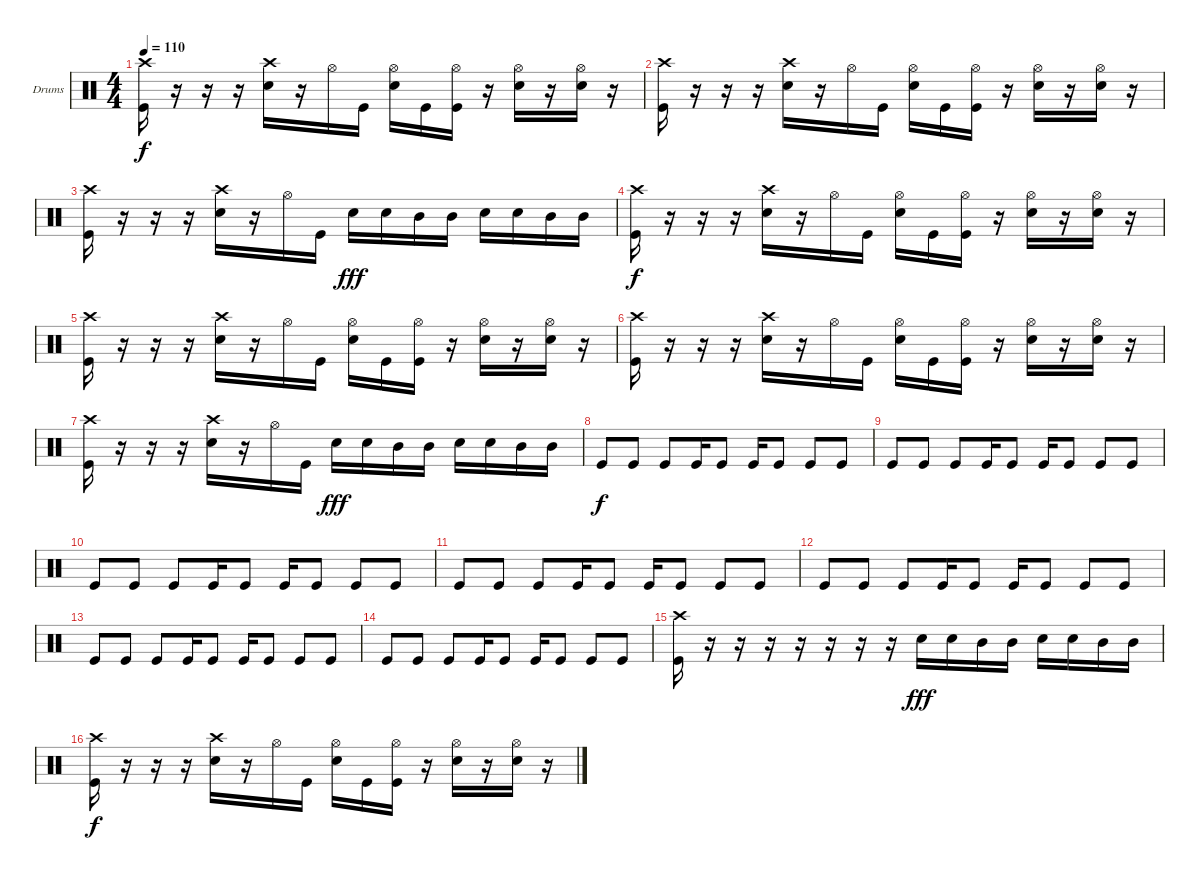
\defaultSystemsLayout 4
\bracketExtendMode groupsimilarinstruments
\firstSystemTrackNameOrientation horizontal
\otherSystemsTrackNameOrientation horizontal
\track ("Drumkit" "Drums") {instrument percussion}
\staff {score}
\articulation defaults
\ts (4 4)
\tempo 110
\clef neutral
\ks c
("Crash high (hit)" "Kick (hit)").16{dy f} r.16 r.16 r.16 ("Crash high (hit)" "Snare (hit) 2").16 r.16 "Hi-Hat (open)".16 "Kick (hit)".16 ("Hi-Hat (open)" "Snare (hit) 2").16 "Kick (hit)".16 ("Hi-Hat (open)" "Kick (hit)").16 r.16 ("Hi-Hat (open)" "Snare (hit) 2").16 r.16 ("Hi-Hat (open)" "Snare (hit) 2").16 r.16 |
("Crash high (hit)" "Kick (hit)").16 r.16 r.16 r.16 ("Crash high (hit)" "Snare (hit) 2").16 r.16 "Hi-Hat (open)".16 "Kick (hit)".16 ("Hi-Hat (open)" "Snare (hit) 2").16 "Kick (hit)".16 ("Hi-Hat (open)" "Kick (hit)").16 r.16 ("Hi-Hat (open)" "Snare (hit) 2").16 r.16 ("Hi-Hat (open)" "Snare (hit) 2").16 r.16 |
("Crash high (hit)" "Kick (hit)").16 r.16 r.16 r.16 ("Crash high (hit)" "Snare (hit) 2").16 r.16 "Hi-Hat (open)".16 "Kick (hit)".16 "Snare (hit) 2".16{dy fff} "Snare (hit) 2".16 "Mid Tom (hit)".16 "Mid Tom (hit)".16 "Snare (hit) 2".16 "Snare (hit) 2".16 "Mid Tom (hit)".16 "Mid Tom (hit)".16 |
("Crash high (hit)" "Kick (hit)").16{dy f} r.16 r.16 r.16 ("Crash high (hit)" "Snare (hit) 2").16 r.16 "Hi-Hat (open)".16 "Kick (hit)".16 ("Hi-Hat (open)" "Snare (hit) 2").16 "Kick (hit)".16 ("Hi-Hat (open)" "Kick (hit)").16 r.16 ("Hi-Hat (open)" "Snare (hit) 2").16 r.16 ("Hi-Hat (open)" "Snare (hit) 2").16 r.16 |
("Crash high (hit)" "Kick (hit)").16 r.16 r.16 r.16 ("Crash high (hit)" "Snare (hit) 2").16 r.16 "Hi-Hat (open)".16 "Kick (hit)".16 ("Hi-Hat (open)" "Snare (hit) 2").16 "Kick (hit)".16 ("Hi-Hat (open)" "Kick (hit)").16 r.16 ("Hi-Hat (open)" "Snare (hit) 2").16 r.16 ("Hi-Hat (open)" "Snare (hit) 2").16 r.16 |
("Crash high (hit)" "Kick (hit)").16 r.16 r.16 r.16 ("Crash high (hit)" "Snare (hit) 2").16 r.16 "Hi-Hat (open)".16 "Kick (hit)".16 ("Hi-Hat (open)" "Snare (hit) 2").16 "Kick (hit)".16 ("Hi-Hat (open)" "Kick (hit)").16 r.16 ("Hi-Hat (open)" "Snare (hit) 2").16 r.16 ("Hi-Hat (open)" "Snare (hit) 2").16 r.16 |
("Crash high (hit)" "Kick (hit)").16 r.16 r.16 r.16 ("Crash high (hit)" "Snare (hit) 2").16 r.16 "Hi-Hat (open)".16 "Kick (hit)".16 "Snare (hit) 2".16{dy fff} "Snare (hit) 2".16 "Mid Tom (hit)".16 "Mid Tom (hit)".16 "Snare (hit) 2".16 "Snare (hit) 2".16 "Mid Tom (hit)".16 "Mid Tom (hit)".16 |
"Kick (hit)".8{dy f} "Kick (hit)".8 "Kick (hit)".8 "Kick (hit)".16 "Kick (hit)".8 "Kick (hit)".16 "Kick (hit)".8 "Kick (hit)".8 "Kick (hit)".8 |
"Kick (hit)".8 "Kick (hit)".8 "Kick (hit)".8 "Kick (hit)".16 "Kick (hit)".8 "Kick (hit)".16 "Kick (hit)".8 "Kick (hit)".8 "Kick (hit)".8 |
"Kick (hit)".8 "Kick (hit)".8 "Kick (hit)".8 "Kick (hit)".16 "Kick (hit)".8 "Kick (hit)".16 "Kick (hit)".8 "Kick (hit)".8 "Kick (hit)".8 |
"Kick (hit)".8 "Kick (hit)".8 "Kick (hit)".8 "Kick (hit)".16 "Kick (hit)".8 "Kick (hit)".16 "Kick (hit)".8 "Kick (hit)".8 "Kick (hit)".8 |
"Kick (hit)".8 "Kick (hit)".8 "Kick (hit)".8 "Kick (hit)".16 "Kick (hit)".8 "Kick (hit)".16 "Kick (hit)".8 "Kick (hit)".8 "Kick (hit)".8 |
"Kick (hit)".8 "Kick (hit)".8 "Kick (hit)".8 "Kick (hit)".16 "Kick (hit)".8 "Kick (hit)".16 "Kick (hit)".8 "Kick (hit)".8 "Kick (hit)".8 |
"Kick (hit)".8 "Kick (hit)".8 "Kick (hit)".8 "Kick (hit)".16 "Kick (hit)".8 "Kick (hit)".16 "Kick (hit)".8 "Kick (hit)".8 "Kick (hit)".8 |
("Crash high (hit)" "Kick (hit)").16 r.16 r.16 r.16 r.16 r.16 r.16 r.16 "Snare (hit) 2".16{dy fff} "Snare (hit) 2".16 "Mid Tom (hit)".16 "Mid Tom (hit)".16 "Snare (hit) 2".16 "Snare (hit) 2".16 "Mid Tom (hit)".16 "Mid Tom (hit)".16 |
("Crash high (hit)" "Kick (hit)").16{dy f} r.16 r.16 r.16 ("Crash high (hit)" "Snare (hit) 2").16 r.16 "Hi-Hat (open)".16 "Kick (hit)".16 ("Hi-Hat (open)" "Snare (hit) 2").16 "Kick (hit)".16 ("Hi-Hat (open)" "Kick (hit)").16 r.16 ("Hi-Hat (open)" "Snare (hit) 2").16 r.16 ("Hi-Hat (open)" "Snare (hit) 2").16 r.16
